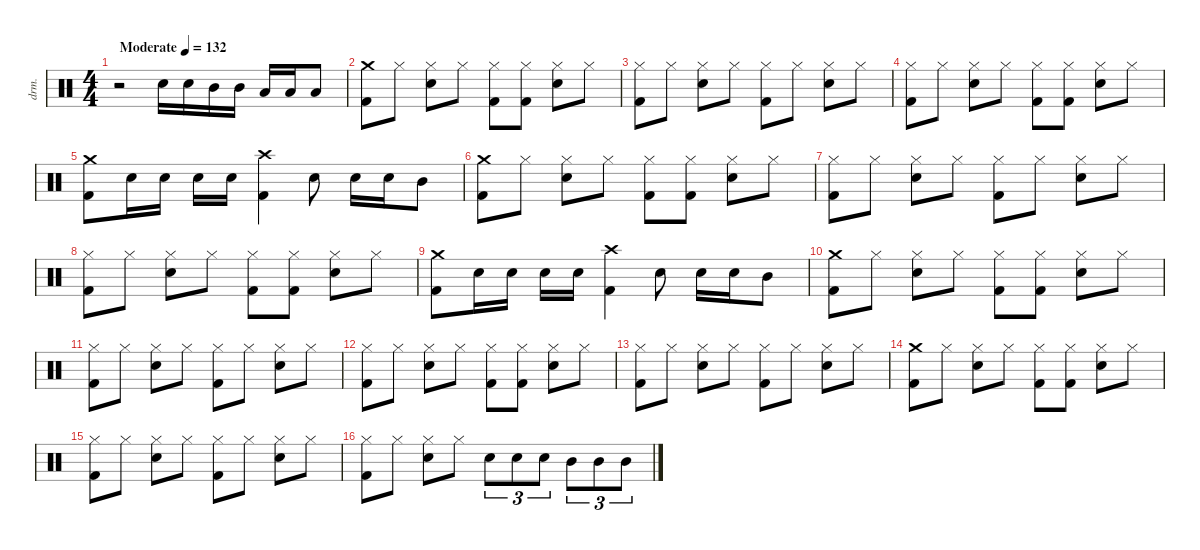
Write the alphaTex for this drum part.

\defaultSystemsLayout 4
\hideDynamics
\bracketExtendMode nobrackets
\track ("敲击乐器" "drm.") {instrument percussion}
\staff {score}
\articulation defaults
\ts (4 4)
\beaming (8 2 2 2 2)
\tempo (132 "Moderate")
\clef neutral
\ks c
r.2{dy f} "Snare (hit) 2".16 "Snare (hit) 2".16 "Mid Tom (hit)".16 "Mid Tom (hit)".16 "Low Tom (hit)".16 "Low Tom (hit)".16 "Low Floor Tom (hit)".8 |
("Crash medium (hit)" "Kick (hit) 2").8 "Hi-Hat (closed)".8 ("Hi-Hat (closed)" "Snare (hit) 2").8 "Hi-Hat (closed)".8 ("Hi-Hat (closed)" "Kick (hit) 2").8 ("Hi-Hat (closed)" "Kick (hit) 2").8 ("Hi-Hat (closed)" "Snare (hit) 2").8 "Hi-Hat (closed)".8 |
("Hi-Hat (closed)" "Kick (hit) 2").8 "Hi-Hat (closed)".8 ("Hi-Hat (closed)" "Snare (hit) 2").8 "Hi-Hat (closed)".8 ("Hi-Hat (closed)" "Kick (hit) 2").8 "Hi-Hat (closed)".8 ("Hi-Hat (closed)" "Snare (hit) 2").8 "Hi-Hat (closed)".8 |
("Hi-Hat (closed)" "Kick (hit) 2").8 "Hi-Hat (closed)".8 ("Hi-Hat (closed)" "Snare (hit) 2").8 "Hi-Hat (closed)".8 ("Hi-Hat (closed)" "Kick (hit) 2").8 ("Hi-Hat (closed)" "Kick (hit) 2").8 ("Hi-Hat (closed)" "Snare (hit) 2").8 "Hi-Hat (closed)".8 |
("Crash medium (hit)" "Kick (hit) 2").8 "Snare (hit) 2".16 "Snare (hit) 2".16 "Snare (hit) 2".16 "Snare (hit) 2".16 ("Crash high (hit)" "Kick (hit) 2").4 "Snare (hit) 2".8 "Snare (hit) 2".16 "Snare (hit) 2".16 "Mid Tom (hit)".8 |
("Crash medium (hit)" "Kick (hit) 2").8 "Hi-Hat (closed)".8 ("Hi-Hat (closed)" "Snare (hit) 2").8 "Hi-Hat (closed)".8 ("Hi-Hat (closed)" "Kick (hit) 2").8 ("Hi-Hat (closed)" "Kick (hit) 2").8 ("Hi-Hat (closed)" "Snare (hit) 2").8 "Hi-Hat (closed)".8 |
("Hi-Hat (closed)" "Kick (hit) 2").8 "Hi-Hat (closed)".8 ("Hi-Hat (closed)" "Snare (hit) 2").8 "Hi-Hat (closed)".8 ("Hi-Hat (closed)" "Kick (hit) 2").8 "Hi-Hat (closed)".8 ("Hi-Hat (closed)" "Snare (hit) 2").8 "Hi-Hat (closed)".8 |
("Hi-Hat (closed)" "Kick (hit) 2").8 "Hi-Hat (closed)".8 ("Hi-Hat (closed)" "Snare (hit) 2").8 "Hi-Hat (closed)".8 ("Hi-Hat (closed)" "Kick (hit) 2").8 ("Hi-Hat (closed)" "Kick (hit) 2").8 ("Hi-Hat (closed)" "Snare (hit) 2").8 "Hi-Hat (closed)".8 |
("Crash medium (hit)" "Kick (hit) 2").8 "Snare (hit) 2".16 "Snare (hit) 2".16 "Snare (hit) 2".16 "Snare (hit) 2".16 ("Crash high (hit)" "Kick (hit) 2").4 "Snare (hit) 2".8 "Snare (hit) 2".16 "Snare (hit) 2".16 "Mid Tom (hit)".8 |
("Crash medium (hit)" "Kick (hit) 2").8 "Hi-Hat (closed)".8 ("Hi-Hat (closed)" "Snare (hit) 2").8 "Hi-Hat (closed)".8 ("Hi-Hat (closed)" "Kick (hit) 2").8 ("Hi-Hat (closed)" "Kick (hit) 2").8 ("Hi-Hat (closed)" "Snare (hit) 2").8 "Hi-Hat (closed)".8 |
("Hi-Hat (closed)" "Kick (hit) 2").8 "Hi-Hat (closed)".8 ("Hi-Hat (closed)" "Snare (hit) 2").8 "Hi-Hat (closed)".8 ("Hi-Hat (closed)" "Kick (hit) 2").8 "Hi-Hat (closed)".8 ("Hi-Hat (closed)" "Snare (hit) 2").8 "Hi-Hat (closed)".8 |
("Hi-Hat (closed)" "Kick (hit) 2").8 "Hi-Hat (closed)".8 ("Hi-Hat (closed)" "Snare (hit) 2").8 "Hi-Hat (closed)".8 ("Hi-Hat (closed)" "Kick (hit) 2").8 ("Hi-Hat (closed)" "Kick (hit) 2").8 ("Hi-Hat (closed)" "Snare (hit) 2").8 "Hi-Hat (closed)".8 |
("Hi-Hat (closed)" "Kick (hit) 2").8 "Hi-Hat (closed)".8 ("Hi-Hat (closed)" "Snare (hit) 2").8 "Hi-Hat (closed)".8 ("Hi-Hat (closed)" "Kick (hit) 2").8 "Hi-Hat (closed)".8 ("Hi-Hat (closed)" "Snare (hit) 2").8 "Hi-Hat (closed)".8 |
("Crash medium (hit)" "Kick (hit) 2").8 "Hi-Hat (closed)".8 ("Hi-Hat (closed)" "Snare (hit) 2").8 "Hi-Hat (closed)".8 ("Hi-Hat (closed)" "Kick (hit) 2").8 ("Hi-Hat (closed)" "Kick (hit) 2").8 ("Hi-Hat (closed)" "Snare (hit) 2").8 "Hi-Hat (closed)".8 |
("Hi-Hat (closed)" "Kick (hit) 2").8 "Hi-Hat (closed)".8 ("Hi-Hat (closed)" "Snare (hit) 2").8 "Hi-Hat (closed)".8 ("Hi-Hat (closed)" "Kick (hit) 2").8 "Hi-Hat (closed)".8 ("Hi-Hat (closed)" "Snare (hit) 2").8 "Hi-Hat (closed)".8 |
("Hi-Hat (closed)" "Kick (hit) 2").8 "Hi-Hat (closed)".8 ("Hi-Hat (closed)" "Snare (hit) 2").8 "Hi-Hat (closed)".8 "Snare (hit) 2".8{tu (3 2)} "Snare (hit) 2".8{tu (3 2)} "Snare (hit) 2".8{tu (3 2)} "Mid Tom (hit)".8{tu (3 2)} "Mid Tom (hit)".8{tu (3 2)} "Mid Tom (hit)".8{tu (3 2)}
